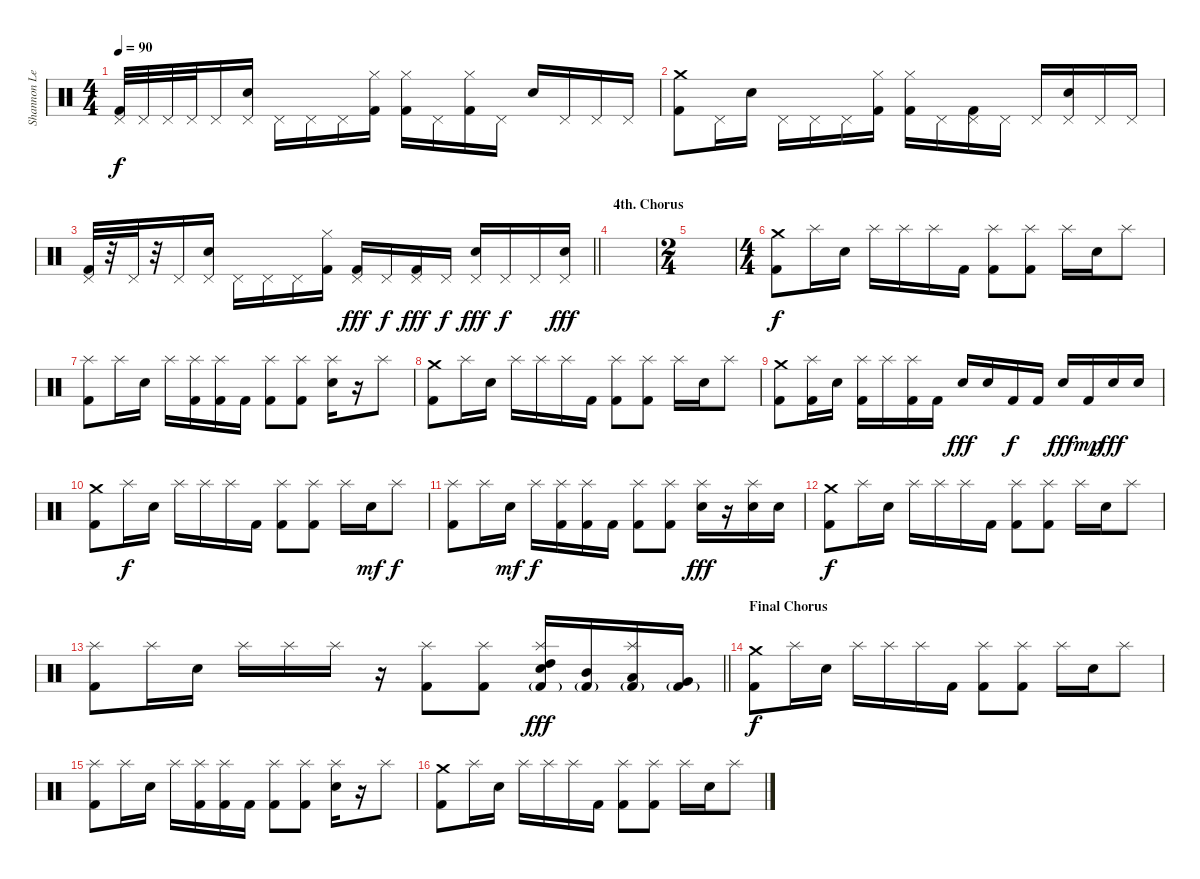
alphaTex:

\track ("Shannon Leto - Drums" "Shannon Le") {instrument percussion}
\staff {score}
\articulation defaults
\ts (4 4)
\tempo 90
\clef neutral
\ks c
("Pedal Hi-Hat (hit)" "Kick (hit) 2").32{dy f} "Pedal Hi-Hat (hit)".32 "Pedal Hi-Hat (hit)".32 "Pedal Hi-Hat (hit)".32 "Pedal Hi-Hat (hit)".16 ("Pedal Hi-Hat (hit)" "Electric Snare (hit)").16 "Pedal Hi-Hat (hit)".16 "Pedal Hi-Hat (hit)".16 "Pedal Hi-Hat (hit)".16 ("Hi-Hat (closed)" "Kick (hit) 2").16 ("Hi-Hat (closed)" "Kick (hit) 2").16 "Pedal Hi-Hat (hit)".16 ("Hi-Hat (closed)" "Kick (hit) 2").16 "Pedal Hi-Hat (hit)".16 "Electric Snare (hit)".16 "Pedal Hi-Hat (hit)".16 "Pedal Hi-Hat (hit)".16 "Pedal Hi-Hat (hit)".16 |
("Crash medium (hit)" "Kick (hit) 2").8 "Pedal Hi-Hat (hit)".16 "Electric Snare (hit)".16 "Pedal Hi-Hat (hit)".16 "Pedal Hi-Hat (hit)".16 "Pedal Hi-Hat (hit)".16 ("Hi-Hat (closed)" "Kick (hit) 2").16 ("Hi-Hat (closed)" "Kick (hit) 2").16 "Pedal Hi-Hat (hit)".16 ("Pedal Hi-Hat (hit)" "Kick (hit) 2").16 "Pedal Hi-Hat (hit)".16 "Pedal Hi-Hat (hit)".16 ("Pedal Hi-Hat (hit)" "Electric Snare (hit)").16 "Pedal Hi-Hat (hit)".16 "Pedal Hi-Hat (hit)".16 |
\barLineRight lightlight
("Pedal Hi-Hat (hit)" "Kick (hit) 2").32 r.32 "Pedal Hi-Hat (hit)".32 r.32 "Pedal Hi-Hat (hit)".16 ("Pedal Hi-Hat (hit)" "Electric Snare (hit)").16 "Pedal Hi-Hat (hit)".16 "Pedal Hi-Hat (hit)".16 "Pedal Hi-Hat (hit)".16 ("Hi-Hat (closed)" "Kick (hit) 2").16 ("Pedal Hi-Hat (hit)" "Kick (hit) 2").16{dy fff} "Pedal Hi-Hat (hit)".16{dy f} ("Pedal Hi-Hat (hit)" "Kick (hit) 2").16{dy fff} "Pedal Hi-Hat (hit)".16{dy f} ("Pedal Hi-Hat (hit)" "Electric Snare (hit)").16{dy fff} "Pedal Hi-Hat (hit)".16{dy f} "Pedal Hi-Hat (hit)".16 ("Pedal Hi-Hat (hit)" "Electric Snare (hit)").16{dy fff} |
\section ("" "4th. Chorus")
|
\ts (2 4)
|
\ts (4 4)
("Crash medium (hit)" "Kick (hit) 2").8{dy f} "Splash (hit)".16 "Electric Snare (hit)".16 "Splash (hit)".16 "Splash (hit)".16 "Splash (hit)".16 "Kick (hit) 2".16 ("Splash (hit)" "Kick (hit) 2").8 ("Splash (hit)" "Kick (hit) 2").8 "Splash (hit)".16 "Electric Snare (hit)".16 "Splash (hit)".8 |
("Splash (hit)" "Kick (hit) 2").8 "Splash (hit)".16 "Electric Snare (hit)".16 "Splash (hit)".16 ("Splash (hit)" "Kick (hit) 2").16 ("Splash (hit)" "Kick (hit) 2").16 "Kick (hit) 2".16 ("Splash (hit)" "Kick (hit) 2").8 ("Splash (hit)" "Kick (hit) 2").8 ("Splash (hit)" "Electric Snare (hit)").16 r.16 "Splash (hit)".8 |
("Crash medium (hit)" "Kick (hit) 2").8 "Splash (hit)".16 "Electric Snare (hit)".16 "Splash (hit)".16 "Splash (hit)".16 "Splash (hit)".16 "Kick (hit) 2".16 ("Splash (hit)" "Kick (hit) 2").8 ("Splash (hit)" "Kick (hit) 2").8 "Splash (hit)".16 "Electric Snare (hit)".16 "Splash (hit)".8 |
("Crash medium (hit)" "Kick (hit) 2").8 ("Splash (hit)" "Kick (hit) 2").16 "Electric Snare (hit)".16 ("Splash (hit)" "Kick (hit) 2").16 "Splash (hit)".16 ("Splash (hit)" "Kick (hit) 2").16 "Kick (hit) 2".16 "Electric Snare (hit)".16{dy fff} "Electric Snare (hit)".16 "Kick (hit) 2".16{dy f} "Kick (hit) 2".16 "Electric Snare (hit)".16{dy fff} "Kick (hit) 2".16{dy mp} "Electric Snare (hit)".16{dy fff} "Electric Snare (hit)".16 |
("Crash medium (hit)" "Kick (hit) 2").8 "Splash (hit)".16{dy f} "Electric Snare (hit)".16 "Splash (hit)".16 "Splash (hit)".16 "Splash (hit)".16 "Kick (hit) 2".16 ("Splash (hit)" "Kick (hit) 2").8 ("Splash (hit)" "Kick (hit) 2").8 "Splash (hit)".16 "Electric Snare (hit)".16{dy mf} "Splash (hit)".8{dy f} |
("Splash (hit)" "Kick (hit) 2").8 "Splash (hit)".16 "Electric Snare (hit)".16{dy mf} "Splash (hit)".16{dy f} ("Splash (hit)" "Kick (hit) 2").16 ("Splash (hit)" "Kick (hit) 2").16 "Kick (hit) 2".16 ("Splash (hit)" "Kick (hit) 2").8 ("Splash (hit)" "Kick (hit) 2").8 ("Splash (hit)" "Electric Snare (hit)").16{dy fff} r.16 ("Splash (hit)" "Electric Snare (hit)").16 "Electric Snare (hit)".16 |
("Crash medium (hit)" "Kick (hit) 2").8{dy f} "Splash (hit)".16 "Electric Snare (hit)".16 "Splash (hit)".16 "Splash (hit)".16 "Splash (hit)".16 "Kick (hit) 2".16 ("Splash (hit)" "Kick (hit) 2").8 ("Splash (hit)" "Kick (hit) 2").8 "Splash (hit)".16 "Electric Snare (hit)".16 "Splash (hit)".8 |
\barLineRight lightlight
("Splash (hit)" "Kick (hit) 2").8 "Splash (hit)".16 "Electric Snare (hit)".16 "Splash (hit)".16 "Splash (hit)".16 "Splash (hit)".16 r.16 ("Splash (hit)" "Kick (hit) 2").8 ("Splash (hit)" "Kick (hit) 2").8 ("Splash (hit)" "Electric Snare (hit)" "High Tom (hit)" "Kick (hit) 2"{g}).16{dy fff} ("Mid Tom (hit)" "Kick (hit) 2"{g}).16 ("Splash (hit)" "Low Tom (hit)" "Kick (hit) 2"{g}).16 ("Very Low Tom (hit)" "Kick (hit) 2"{g}).16 |
\section ("" "Final Chorus")
("Crash medium (hit)" "Kick (hit) 2").8{dy f} "Splash (hit)".16 "Electric Snare (hit)".16 "Splash (hit)".16 "Splash (hit)".16 "Splash (hit)".16 "Kick (hit) 2".16 ("Splash (hit)" "Kick (hit) 2").8 ("Splash (hit)" "Kick (hit) 2").8 "Splash (hit)".16 "Electric Snare (hit)".16 "Splash (hit)".8 |
("Splash (hit)" "Kick (hit) 2").8 "Splash (hit)".16 "Electric Snare (hit)".16 "Splash (hit)".16 ("Splash (hit)" "Kick (hit) 2").16 ("Splash (hit)" "Kick (hit) 2").16 "Kick (hit) 2".16 ("Splash (hit)" "Kick (hit) 2").8 ("Splash (hit)" "Kick (hit) 2").8 ("Splash (hit)" "Electric Snare (hit)").16 r.16 "Splash (hit)".8 |
("Crash medium (hit)" "Kick (hit) 2").8 "Splash (hit)".16 "Electric Snare (hit)".16 "Splash (hit)".16 "Splash (hit)".16 "Splash (hit)".16 "Kick (hit) 2".16 ("Splash (hit)" "Kick (hit) 2").8 ("Splash (hit)" "Kick (hit) 2").8 "Splash (hit)".16 "Electric Snare (hit)".16 "Splash (hit)".8
